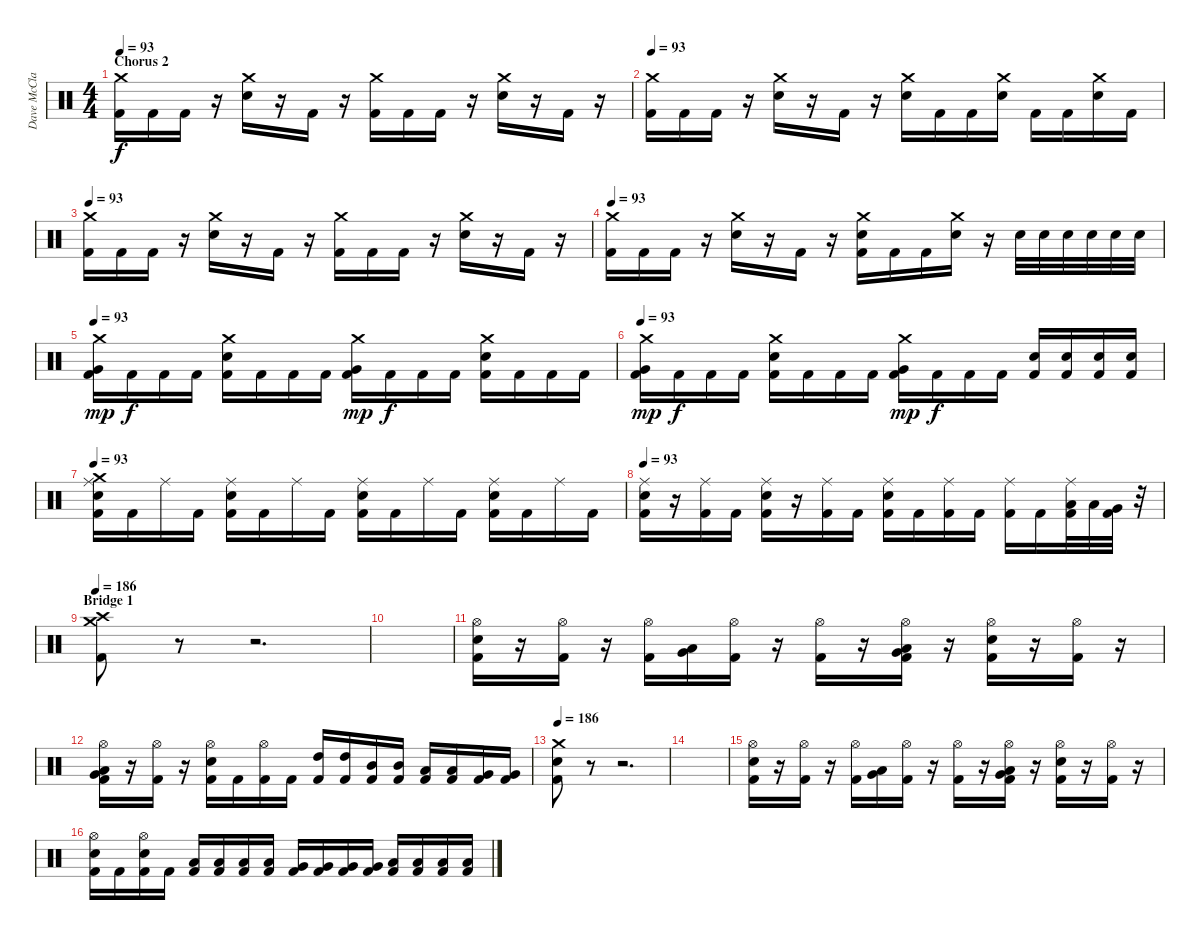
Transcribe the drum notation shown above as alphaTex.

\track ("Dave McClain" "Dave McCla") {instrument percussion}
\staff {score}
\articulation defaults
\ts (4 4)
\section ("" "Chorus 2")
\tempo 93
\clef neutral
\ks c
("Crash medium (hit)" "Kick (hit) 2").16{dy f} "Kick (hit) 2".16 "Kick (hit) 2".16 r.16 ("Crash medium (hit)" "Snare (hit) 2").16 r.16 "Kick (hit) 2".16 r.16 ("Crash medium (hit)" "Kick (hit) 2").16 "Kick (hit) 2".16 "Kick (hit) 2".16 r.16 ("Crash medium (hit)" "Snare (hit) 2").16 r.16 "Kick (hit) 2".16 r.16 |
\tempo 93
("Crash medium (hit)" "Kick (hit) 2").16 "Kick (hit) 2".16 "Kick (hit) 2".16 r.16 ("Crash medium (hit)" "Snare (hit) 2").16 r.16 "Kick (hit) 2".16 r.16 ("Crash medium (hit)" "Snare (hit) 2").16 "Kick (hit) 2".16 "Kick (hit) 2".16 ("Crash medium (hit)" "Snare (hit) 2").16 "Kick (hit) 2".16 "Kick (hit) 2".16 ("Crash medium (hit)" "Snare (hit) 2").16 "Kick (hit) 2".16 |
\tempo 93
("Crash medium (hit)" "Kick (hit) 2").16 "Kick (hit) 2".16 "Kick (hit) 2".16 r.16 ("Crash medium (hit)" "Snare (hit) 2").16 r.16 "Kick (hit) 2".16 r.16 ("Crash medium (hit)" "Kick (hit) 2").16 "Kick (hit) 2".16 "Kick (hit) 2".16 r.16 ("Crash medium (hit)" "Snare (hit) 2").16 r.16 "Kick (hit) 2".16 r.16 |
\tempo 93
("Crash medium (hit)" "Kick (hit) 2").16 "Kick (hit) 2".16 "Kick (hit) 2".16 r.16 ("Crash medium (hit)" "Snare (hit) 2").16 r.16 "Kick (hit) 2".16 r.16 ("Crash medium (hit)" "Snare (hit) 2" "Kick (hit) 2").16 "Kick (hit) 2".16 "Kick (hit) 2".16 ("Crash medium (hit)" "Snare (hit) 2").16 r.16 "Snare (hit) 2".32 "Snare (hit) 2".32 "Snare (hit) 2".32 "Snare (hit) 2".32 "Snare (hit) 2".32 "Snare (hit) 2".32 |
\tempo 93
("Crash medium (hit)" "Very Low Tom (hit)" "Kick (hit) 2").16{dy mp} "Kick (hit) 2".16{dy f} "Kick (hit) 2".16 "Kick (hit) 2".16 ("Crash medium (hit)" "Snare (hit) 2" "Kick (hit) 2").16 "Kick (hit) 2".16 "Kick (hit) 2".16 "Kick (hit) 2".16 ("Crash medium (hit)" "Very Low Tom (hit)" "Kick (hit) 2").16{dy mp} "Kick (hit) 2".16{dy f} "Kick (hit) 2".16 "Kick (hit) 2".16 ("Crash medium (hit)" "Snare (hit) 2" "Kick (hit) 2").16 "Kick (hit) 2".16 "Kick (hit) 2".16 "Kick (hit) 2".16 |
\tempo 93
("Crash medium (hit)" "Very Low Tom (hit)" "Kick (hit) 2").16{dy mp} "Kick (hit) 2".16{dy f} "Kick (hit) 2".16 "Kick (hit) 2".16 ("Crash medium (hit)" "Snare (hit) 2" "Kick (hit) 2").16 "Kick (hit) 2".16 "Kick (hit) 2".16 "Kick (hit) 2".16 ("Crash medium (hit)" "Very Low Tom (hit)" "Kick (hit) 2").16{dy mp} "Kick (hit) 2".16{dy f} "Kick (hit) 2".16 "Kick (hit) 2".16 ("Snare (hit) 2" "Kick (hit) 2").16 ("Snare (hit) 2" "Kick (hit) 2").16 ("Snare (hit) 2" "Kick (hit) 2").16 ("Snare (hit) 2" "Kick (hit) 2").16 |
\tempo 93
("Crash medium (hit)" "Ride (middle)" "Snare (hit) 2" "Kick (hit) 2").16 "Kick (hit) 2".16 "Ride (middle)".16 "Kick (hit) 2".16 ("Ride (middle)" "Snare (hit) 2" "Kick (hit) 2").16 "Kick (hit) 2".16 "Ride (middle)".16 "Kick (hit) 2".16 ("Ride (middle)" "Snare (hit) 2" "Kick (hit) 2").16 "Kick (hit) 2".16 "Ride (middle)".16 "Kick (hit) 2".16 ("Ride (middle)" "Snare (hit) 2" "Kick (hit) 2").16 "Kick (hit) 2".16 "Ride (middle)".16 "Kick (hit) 2".16 |
\tempo 93
("Ride (middle)" "Snare (hit) 2" "Kick (hit) 2").16 r.16 ("Ride (middle)" "Kick (hit) 2").16 "Kick (hit) 2".16 ("Ride (middle)" "Snare (hit) 2" "Kick (hit) 2").16 r.16 ("Ride (middle)" "Kick (hit) 2").16 "Kick (hit) 2".16 ("Ride (middle)" "Snare (hit) 2" "Kick (hit) 2").16 "Kick (hit) 2".16 ("Ride (middle)" "Kick (hit) 2").16 "Kick (hit) 2".16 ("Ride (middle)" "Kick (hit) 2").16 "Kick (hit) 2".16 ("Ride (middle)" "Low Tom (hit)" "Kick (hit) 2").32 "Low Tom (hit)".32 ("Very Low Tom (hit)" "Kick (hit) 2").32 r.32 |
\section ("" "Bridge 1")
\tempo 186
("Crash high (hit)" "Crash medium (hit)" "Kick (hit) 2").8 r.8 r.2{d} |
|
("Hi-Hat (open)" "Snare (hit) 2" "Kick (hit) 2").16 r.16 ("Hi-Hat (open)" "Kick (hit) 2").16 r.16 ("Hi-Hat (open)" "Kick (hit) 2").16 ("Low Floor Tom (hit)" "Very Low Tom (hit)").16 ("Hi-Hat (open)" "Kick (hit) 2").16 r.16 ("Hi-Hat (open)" "Kick (hit) 2").16 r.16 ("Hi-Hat (open)" "Low Floor Tom (hit)" "Very Low Tom (hit)" "Kick (hit) 2").16 r.16 ("Hi-Hat (open)" "Snare (hit) 2" "Kick (hit) 2").16 r.16 ("Hi-Hat (open)" "Kick (hit) 2").16 r.16 |
("Hi-Hat (open)" "Low Floor Tom (hit)" "Very Low Tom (hit)" "Kick (hit) 2").16 r.16 ("Hi-Hat (open)" "Kick (hit) 2").16 r.16 ("Hi-Hat (open)" "Snare (hit) 2" "Kick (hit) 2").16 "Kick (hit) 2".16 ("Hi-Hat (open)" "Kick (hit) 2").16 "Kick (hit) 2".16 ("High Tom (hit)" "Kick (hit) 2").16 ("High Tom (hit)" "Kick (hit) 2").16 ("Mid Tom (hit)" "Kick (hit) 2").16 ("Mid Tom (hit)" "Kick (hit) 2").16 ("Low Tom (hit)" "Kick (hit) 2").16 ("Low Tom (hit)" "Kick (hit) 2").16 ("Very Low Tom (hit)" "Kick (hit) 2").16 ("Very Low Tom (hit)" "Kick (hit) 2").16 |
\tempo 186
("Crash medium (hit)" "Snare (hit) 2" "Kick (hit) 2").8 r.8 r.2{d} |
|
("Hi-Hat (open)" "Snare (hit) 2" "Kick (hit) 2").16 r.16 ("Hi-Hat (open)" "Kick (hit) 2").16 r.16 ("Hi-Hat (open)" "Kick (hit) 2").16 ("Low Floor Tom (hit)" "Very Low Tom (hit)").16 ("Hi-Hat (open)" "Kick (hit) 2").16 r.16 ("Hi-Hat (open)" "Kick (hit) 2").16 r.16 ("Hi-Hat (open)" "Low Floor Tom (hit)" "Very Low Tom (hit)" "Kick (hit) 2").16 r.16 ("Hi-Hat (open)" "Snare (hit) 2" "Kick (hit) 2").16 r.16 ("Hi-Hat (open)" "Kick (hit) 2").16 r.16 |
("Hi-Hat (open)" "Snare (hit) 2" "Kick (hit) 2").16 "Kick (hit) 2".16 ("Hi-Hat (open)" "Snare (hit) 2" "Kick (hit) 2").16 "Kick (hit) 2".16 ("Low Tom (hit)" "Kick (hit) 2").16 ("Low Tom (hit)" "Kick (hit) 2").16 ("Low Tom (hit)" "Kick (hit) 2").16 ("Low Tom (hit)" "Kick (hit) 2").16 ("Very Low Tom (hit)" "Kick (hit) 2").16 ("Very Low Tom (hit)" "Kick (hit) 2").16 ("Very Low Tom (hit)" "Kick (hit) 2").16 ("Very Low Tom (hit)" "Kick (hit) 2").16 ("Low Floor Tom (hit)" "Kick (hit) 2").16 ("Low Floor Tom (hit)" "Kick (hit) 2").16 ("Low Floor Tom (hit)" "Kick (hit) 2").16 ("Low Floor Tom (hit)" "Kick (hit) 2").16
